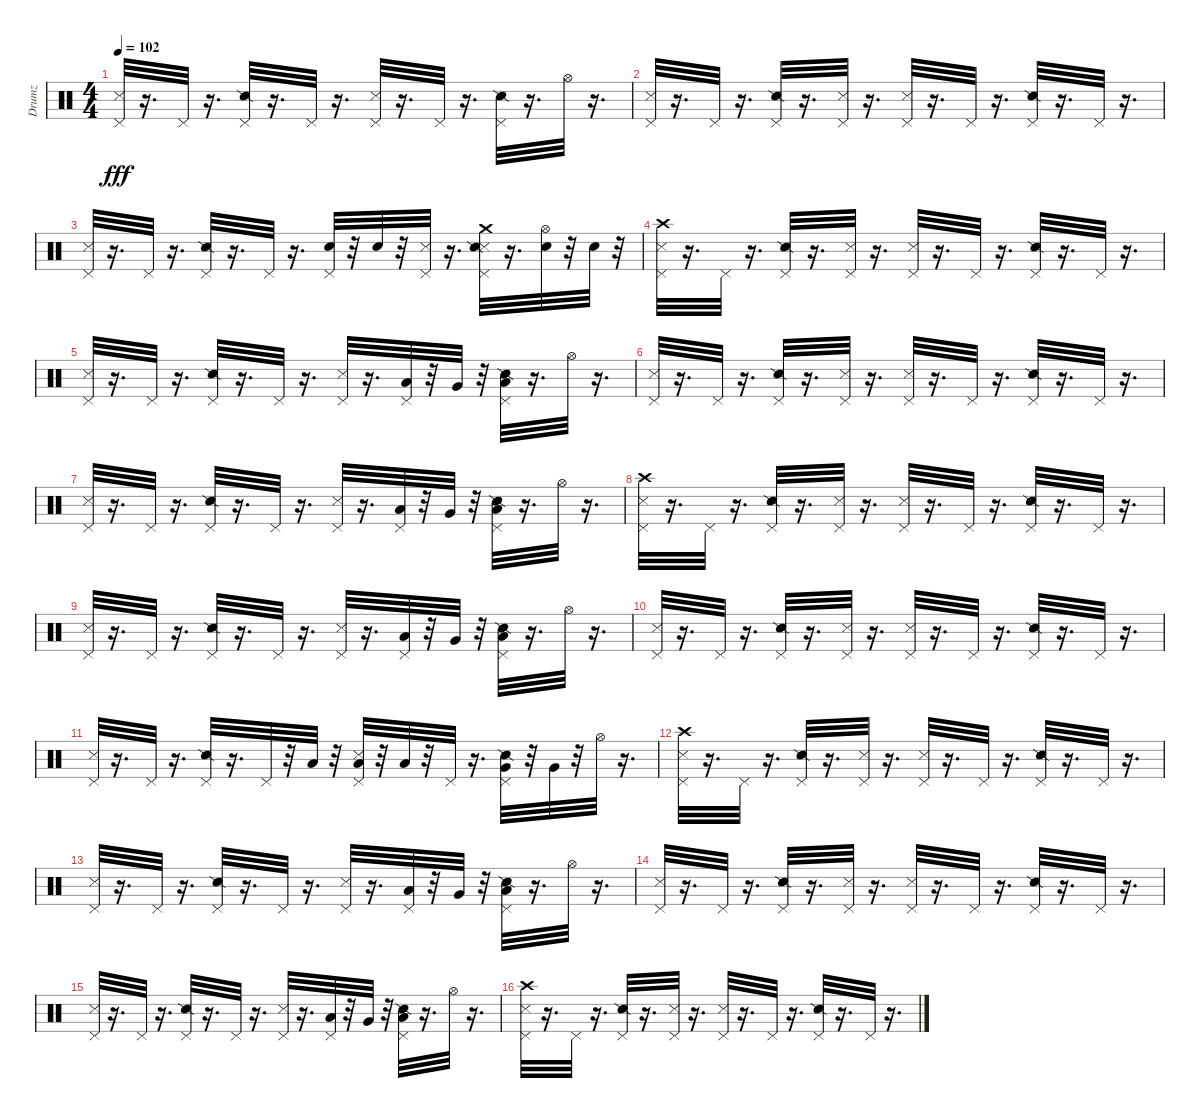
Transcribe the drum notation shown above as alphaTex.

\track ("Drumz" "Drumz") {instrument percussion}
\staff {score}
\articulation defaults
\ts (4 4)
\tempo 102
\clef neutral
\ks c
("Metronome (hit)" "Pedal Hi-Hat (hit)").32{dy fff} r.16{d} "Pedal Hi-Hat (hit)".32 r.16{d} ("Pedal Hi-Hat (hit)" "Snare (side stick) 2").32 r.16{d} "Pedal Hi-Hat (hit)".32 r.16{d} ("Metronome (hit)" "Pedal Hi-Hat (hit)").32 r.16{d} "Pedal Hi-Hat (hit)".32 r.16{d} ("Pedal Hi-Hat (hit)" "Snare (side stick) 2").32 r.16{d} "Hi-Hat (open)".32 r.16{d} |
("Pedal Hi-Hat (hit)" "Metronome (hit)").32 r.16{d} "Pedal Hi-Hat (hit)".32 r.16{d} ("Snare (side stick) 2" "Pedal Hi-Hat (hit)").32 r.16{d} ("Pedal Hi-Hat (hit)" "Metronome (hit)").32 r.16{d} ("Metronome (hit)" "Pedal Hi-Hat (hit)").32 r.16{d} "Pedal Hi-Hat (hit)".32 r.16{d} ("Pedal Hi-Hat (hit)" "Snare (side stick) 2").32 r.16{d} "Pedal Hi-Hat (hit)".32 r.16{d} |
("Pedal Hi-Hat (hit)" "Metronome (hit)").32 r.16{d} "Pedal Hi-Hat (hit)".32 r.16{d} ("Pedal Hi-Hat (hit)" "Snare (side stick) 2").32 r.16{d} "Pedal Hi-Hat (hit)".32 r.16{d} ("Snare (hit) 2" "Pedal Hi-Hat (hit)").32 r.32 "Snare (hit) 2".32 r.32 ("Pedal Hi-Hat (hit)" "Metronome (hit)").32 r.16{d} ("Crash medium (hit)" "Metronome (hit)" "Pedal Hi-Hat (hit)" "Snare (side stick) 2").32 r.16{d} ("Hi-Hat (open)" "Snare (hit) 2").32 r.32 "Snare (hit) 2".32 r.32 |
("Crash high (hit)" "Pedal Hi-Hat (hit)" "Metronome (hit)").32 r.16{d} "Pedal Hi-Hat (hit)".32 r.16{d} ("Pedal Hi-Hat (hit)" "Snare (side stick) 2").32 r.16{d} ("Pedal Hi-Hat (hit)" "Metronome (hit)").32 r.16{d} ("Metronome (hit)" "Pedal Hi-Hat (hit)").32 r.16{d} "Pedal Hi-Hat (hit)".32 r.16{d} ("Snare (side stick) 2" "Pedal Hi-Hat (hit)").32 r.16{d} "Pedal Hi-Hat (hit)".32 r.16{d} |
("Metronome (hit)" "Pedal Hi-Hat (hit)").32 r.16{d} "Pedal Hi-Hat (hit)".32 r.16{d} ("Pedal Hi-Hat (hit)" "Snare (side stick) 2").32 r.16{d} "Pedal Hi-Hat (hit)".32 r.16{d} ("Metronome (hit)" "Pedal Hi-Hat (hit)").32 r.16{d} ("Pedal Hi-Hat (hit)" "Low Floor Tom (hit)").32 r.32 "Very Low Tom (hit)".32 r.32 ("Snare (side stick) 2" "Pedal Hi-Hat (hit)" "Low Floor Tom (hit)").32 r.16{d} "Hi-Hat (open)".32 r.16{d} |
("Metronome (hit)" "Pedal Hi-Hat (hit)").32 r.16{d} "Pedal Hi-Hat (hit)".32 r.16{d} ("Pedal Hi-Hat (hit)" "Snare (side stick) 2").32 r.16{d} ("Pedal Hi-Hat (hit)" "Metronome (hit)").32 r.16{d} ("Metronome (hit)" "Pedal Hi-Hat (hit)").32 r.16{d} "Pedal Hi-Hat (hit)".32 r.16{d} ("Pedal Hi-Hat (hit)" "Snare (side stick) 2").32 r.16{d} "Pedal Hi-Hat (hit)".32 r.16{d} |
("Pedal Hi-Hat (hit)" "Metronome (hit)").32 r.16{d} "Pedal Hi-Hat (hit)".32 r.16{d} ("Snare (side stick) 2" "Pedal Hi-Hat (hit)").32 r.16{d} "Pedal Hi-Hat (hit)".32 r.16{d} ("Metronome (hit)" "Pedal Hi-Hat (hit)").32 r.16{d} ("Low Floor Tom (hit)" "Pedal Hi-Hat (hit)").32 r.32 "Very Low Tom (hit)".32 r.32 ("Pedal Hi-Hat (hit)" "Snare (side stick) 2" "Low Floor Tom (hit)").32 r.16{d} "Hi-Hat (open)".32 r.16{d} |
("Crash high (hit)" "Metronome (hit)" "Pedal Hi-Hat (hit)").32 r.16{d} "Pedal Hi-Hat (hit)".32 r.16{d} ("Snare (side stick) 2" "Pedal Hi-Hat (hit)").32 r.16{d} ("Metronome (hit)" "Pedal Hi-Hat (hit)").32 r.16{d} ("Metronome (hit)" "Pedal Hi-Hat (hit)").32 r.16{d} "Pedal Hi-Hat (hit)".32 r.16{d} ("Snare (side stick) 2" "Pedal Hi-Hat (hit)").32 r.16{d} "Pedal Hi-Hat (hit)".32 r.16{d} |
("Pedal Hi-Hat (hit)" "Metronome (hit)").32 r.16{d} "Pedal Hi-Hat (hit)".32 r.16{d} ("Pedal Hi-Hat (hit)" "Snare (side stick) 2").32 r.16{d} "Pedal Hi-Hat (hit)".32 r.16{d} ("Pedal Hi-Hat (hit)" "Metronome (hit)").32 r.16{d} ("Pedal Hi-Hat (hit)" "Low Floor Tom (hit)").32 r.32 "Very Low Tom (hit)".32 r.32 ("Low Floor Tom (hit)" "Pedal Hi-Hat (hit)" "Snare (side stick) 2").32 r.16{d} "Hi-Hat (open)".32 r.16{d} |
("Metronome (hit)" "Pedal Hi-Hat (hit)").32 r.16{d} "Pedal Hi-Hat (hit)".32 r.16{d} ("Snare (side stick) 2" "Pedal Hi-Hat (hit)").32 r.16{d} ("Metronome (hit)" "Pedal Hi-Hat (hit)").32 r.16{d} ("Metronome (hit)" "Pedal Hi-Hat (hit)").32 r.16{d} "Pedal Hi-Hat (hit)".32 r.16{d} ("Pedal Hi-Hat (hit)" "Snare (side stick) 2").32 r.16{d} "Pedal Hi-Hat (hit)".32 r.16{d} |
("Metronome (hit)" "Pedal Hi-Hat (hit)").32 r.16{d} "Pedal Hi-Hat (hit)".32 r.16{d} ("Pedal Hi-Hat (hit)" "Snare (side stick) 2").32 r.16{d} "Pedal Hi-Hat (hit)".32 r.32 "Low Floor Tom (hit)".32 r.32 ("Low Tom (hit)" "Metronome (hit)" "Pedal Hi-Hat (hit)").32 r.32 "Low Tom (hit)".32 r.32 "Pedal Hi-Hat (hit)".32 r.16{d} ("Very Low Tom (hit)" "Snare (side stick) 2" "Pedal Hi-Hat (hit)").32 r.32 "Very Low Tom (hit)".32 r.32 "Hi-Hat (open)".32 r.16{d} |
("Crash high (hit)" "Pedal Hi-Hat (hit)" "Metronome (hit)").32 r.16{d} "Pedal Hi-Hat (hit)".32 r.16{d} ("Pedal Hi-Hat (hit)" "Snare (side stick) 2").32 r.16{d} ("Pedal Hi-Hat (hit)" "Metronome (hit)").32 r.16{d} ("Metronome (hit)" "Pedal Hi-Hat (hit)").32 r.16{d} "Pedal Hi-Hat (hit)".32 r.16{d} ("Snare (side stick) 2" "Pedal Hi-Hat (hit)").32 r.16{d} "Pedal Hi-Hat (hit)".32 r.16{d} |
("Metronome (hit)" "Pedal Hi-Hat (hit)").32 r.16{d} "Pedal Hi-Hat (hit)".32 r.16{d} ("Pedal Hi-Hat (hit)" "Snare (side stick) 2").32 r.16{d} "Pedal Hi-Hat (hit)".32 r.16{d} ("Metronome (hit)" "Pedal Hi-Hat (hit)").32 r.16{d} ("Pedal Hi-Hat (hit)" "Low Floor Tom (hit)").32 r.32 "Very Low Tom (hit)".32 r.32 ("Snare (side stick) 2" "Pedal Hi-Hat (hit)" "Low Floor Tom (hit)").32 r.16{d} "Hi-Hat (open)".32 r.16{d} |
("Metronome (hit)" "Pedal Hi-Hat (hit)").32 r.16{d} "Pedal Hi-Hat (hit)".32 r.16{d} ("Pedal Hi-Hat (hit)" "Snare (side stick) 2").32 r.16{d} ("Pedal Hi-Hat (hit)" "Metronome (hit)").32 r.16{d} ("Metronome (hit)" "Pedal Hi-Hat (hit)").32 r.16{d} "Pedal Hi-Hat (hit)".32 r.16{d} ("Pedal Hi-Hat (hit)" "Snare (side stick) 2").32 r.16{d} "Pedal Hi-Hat (hit)".32 r.16{d} |
("Pedal Hi-Hat (hit)" "Metronome (hit)").32 r.16{d} "Pedal Hi-Hat (hit)".32 r.16{d} ("Snare (side stick) 2" "Pedal Hi-Hat (hit)").32 r.16{d} "Pedal Hi-Hat (hit)".32 r.16{d} ("Metronome (hit)" "Pedal Hi-Hat (hit)").32 r.16{d} ("Low Floor Tom (hit)" "Pedal Hi-Hat (hit)").32 r.32 "Very Low Tom (hit)".32 r.32 ("Pedal Hi-Hat (hit)" "Snare (side stick) 2" "Low Floor Tom (hit)").32 r.16{d} "Hi-Hat (open)".32 r.16{d} |
("Crash high (hit)" "Pedal Hi-Hat (hit)" "Metronome (hit)").32 r.16{d} "Pedal Hi-Hat (hit)".32 r.16{d} ("Pedal Hi-Hat (hit)" "Snare (side stick) 2").32 r.16{d} ("Pedal Hi-Hat (hit)" "Metronome (hit)").32 r.16{d} ("Metronome (hit)" "Pedal Hi-Hat (hit)").32 r.16{d} "Pedal Hi-Hat (hit)".32 r.16{d} ("Snare (side stick) 2" "Pedal Hi-Hat (hit)").32 r.16{d} "Pedal Hi-Hat (hit)".32 r.16{d}
